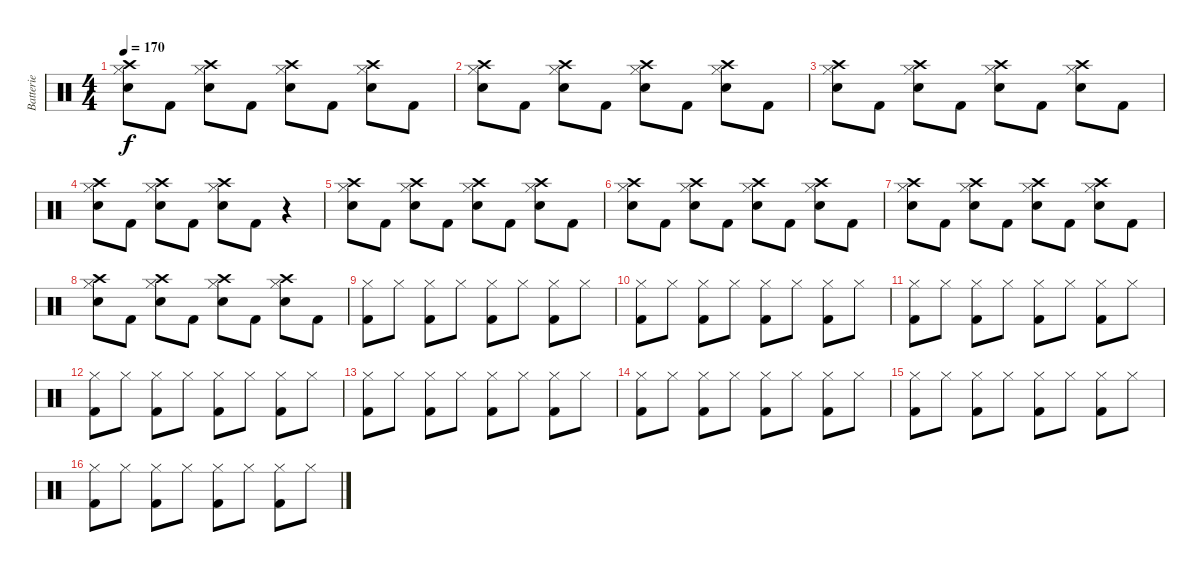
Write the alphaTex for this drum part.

\track ("Batterie" "Batterie") {instrument percussion}
\staff {score}
\articulation defaults
\ts (4 4)
\section ("" "")
\tempo 170
\clef neutral
\ks c
("Hi-Hat (closed)" "Snare (hit) 2" "Crash high (hit)").8{dy f} "Kick (hit) 2".8 ("Hi-Hat (closed)" "Snare (hit) 2" "Crash high (hit)").8 "Kick (hit) 2".8 ("Hi-Hat (closed)" "Snare (hit) 2" "Crash high (hit)").8 "Kick (hit) 2".8 ("Hi-Hat (closed)" "Snare (hit) 2" "Crash high (hit)").8 "Kick (hit) 2".8 |
("Hi-Hat (closed)" "Snare (hit) 2" "Crash high (hit)").8 "Kick (hit) 2".8 ("Hi-Hat (closed)" "Snare (hit) 2" "Crash high (hit)").8 "Kick (hit) 2".8 ("Hi-Hat (closed)" "Snare (hit) 2" "Crash high (hit)").8 "Kick (hit) 2".8 ("Hi-Hat (closed)" "Snare (hit) 2" "Crash high (hit)").8 "Kick (hit) 2".8 |
("Hi-Hat (closed)" "Snare (hit) 2" "Crash high (hit)").8 "Kick (hit) 2".8 ("Hi-Hat (closed)" "Snare (hit) 2" "Crash high (hit)").8 "Kick (hit) 2".8 ("Hi-Hat (closed)" "Snare (hit) 2" "Crash high (hit)").8 "Kick (hit) 2".8 ("Hi-Hat (closed)" "Snare (hit) 2" "Crash high (hit)").8 "Kick (hit) 2".8 |
("Hi-Hat (closed)" "Snare (hit) 2" "Crash high (hit)").8 "Kick (hit) 2".8 ("Hi-Hat (closed)" "Snare (hit) 2" "Crash high (hit)").8 "Kick (hit) 2".8 ("Hi-Hat (closed)" "Snare (hit) 2" "Crash high (hit)").8 "Kick (hit) 2".8 r.4 |
("Hi-Hat (closed)" "Snare (hit) 2" "Crash high (hit)").8 "Kick (hit) 2".8 ("Hi-Hat (closed)" "Snare (hit) 2" "Crash high (hit)").8 "Kick (hit) 2".8 ("Hi-Hat (closed)" "Snare (hit) 2" "Crash high (hit)").8 "Kick (hit) 2".8 ("Hi-Hat (closed)" "Snare (hit) 2" "Crash high (hit)").8 "Kick (hit) 2".8 |
("Hi-Hat (closed)" "Snare (hit) 2" "Crash high (hit)").8 "Kick (hit) 2".8 ("Hi-Hat (closed)" "Snare (hit) 2" "Crash high (hit)").8 "Kick (hit) 2".8 ("Hi-Hat (closed)" "Snare (hit) 2" "Crash high (hit)").8 "Kick (hit) 2".8 ("Hi-Hat (closed)" "Snare (hit) 2" "Crash high (hit)").8 "Kick (hit) 2".8 |
("Hi-Hat (closed)" "Snare (hit) 2" "Crash high (hit)").8 "Kick (hit) 2".8 ("Hi-Hat (closed)" "Snare (hit) 2" "Crash high (hit)").8 "Kick (hit) 2".8 ("Hi-Hat (closed)" "Snare (hit) 2" "Crash high (hit)").8 "Kick (hit) 2".8 ("Hi-Hat (closed)" "Snare (hit) 2" "Crash high (hit)").8 "Kick (hit) 2".8 |
("Hi-Hat (closed)" "Snare (hit) 2" "Crash high (hit)").8 "Kick (hit) 2".8 ("Hi-Hat (closed)" "Snare (hit) 2" "Crash high (hit)").8 "Kick (hit) 2".8 ("Hi-Hat (closed)" "Snare (hit) 2" "Crash high (hit)").8 "Kick (hit) 2".8 ("Hi-Hat (closed)" "Snare (hit) 2" "Crash high (hit)").8 "Kick (hit) 2".8 |
\section ("" "")
("Hi-Hat (closed)" "Kick (hit) 2").8 "Hi-Hat (closed)".8 ("Hi-Hat (closed)" "Kick (hit) 2").8 "Hi-Hat (closed)".8 ("Hi-Hat (closed)" "Kick (hit) 2").8 "Hi-Hat (closed)".8 ("Hi-Hat (closed)" "Kick (hit) 2").8 "Hi-Hat (closed)".8 |
("Hi-Hat (closed)" "Kick (hit) 2").8 "Hi-Hat (closed)".8 ("Hi-Hat (closed)" "Kick (hit) 2").8 "Hi-Hat (closed)".8 ("Hi-Hat (closed)" "Kick (hit) 2").8 "Hi-Hat (closed)".8 ("Hi-Hat (closed)" "Kick (hit) 2").8 "Hi-Hat (closed)".8 |
("Hi-Hat (closed)" "Kick (hit) 2").8 "Hi-Hat (closed)".8 ("Hi-Hat (closed)" "Kick (hit) 2").8 "Hi-Hat (closed)".8 ("Hi-Hat (closed)" "Kick (hit) 2").8 "Hi-Hat (closed)".8 ("Hi-Hat (closed)" "Kick (hit) 2").8 "Hi-Hat (closed)".8 |
("Hi-Hat (closed)" "Kick (hit) 2").8 "Hi-Hat (closed)".8 ("Hi-Hat (closed)" "Kick (hit) 2").8 "Hi-Hat (closed)".8 ("Hi-Hat (closed)" "Kick (hit) 2").8 "Hi-Hat (closed)".8 ("Hi-Hat (closed)" "Kick (hit) 2").8 "Hi-Hat (closed)".8 |
("Hi-Hat (closed)" "Kick (hit) 2").8 "Hi-Hat (closed)".8 ("Hi-Hat (closed)" "Kick (hit) 2").8 "Hi-Hat (closed)".8 ("Hi-Hat (closed)" "Kick (hit) 2").8 "Hi-Hat (closed)".8 ("Hi-Hat (closed)" "Kick (hit) 2").8 "Hi-Hat (closed)".8 |
("Hi-Hat (closed)" "Kick (hit) 2").8 "Hi-Hat (closed)".8 ("Hi-Hat (closed)" "Kick (hit) 2").8 "Hi-Hat (closed)".8 ("Hi-Hat (closed)" "Kick (hit) 2").8 "Hi-Hat (closed)".8 ("Hi-Hat (closed)" "Kick (hit) 2").8 "Hi-Hat (closed)".8 |
("Hi-Hat (closed)" "Kick (hit) 2").8 "Hi-Hat (closed)".8 ("Hi-Hat (closed)" "Kick (hit) 2").8 "Hi-Hat (closed)".8 ("Hi-Hat (closed)" "Kick (hit) 2").8 "Hi-Hat (closed)".8 ("Hi-Hat (closed)" "Kick (hit) 2").8 "Hi-Hat (closed)".8 |
("Hi-Hat (closed)" "Kick (hit) 2").8 "Hi-Hat (closed)".8 ("Hi-Hat (closed)" "Kick (hit) 2").8 "Hi-Hat (closed)".8 ("Hi-Hat (closed)" "Kick (hit) 2").8 "Hi-Hat (closed)".8 ("Hi-Hat (closed)" "Kick (hit) 2").8 "Hi-Hat (closed)".8
